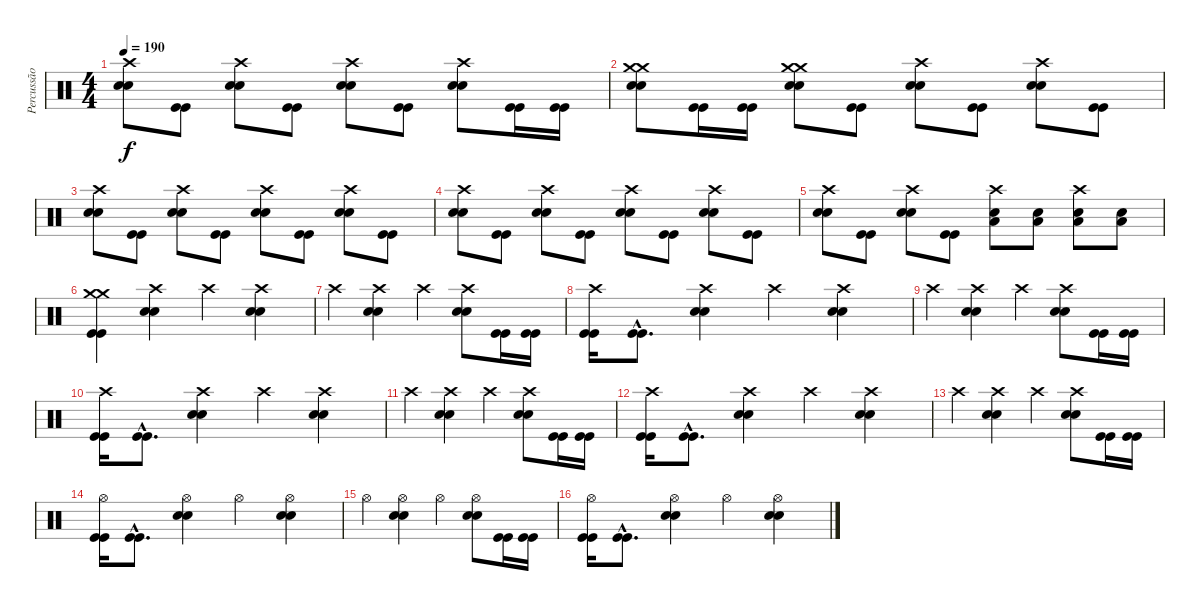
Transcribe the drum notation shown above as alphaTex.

\track ("Percussão" "Percussão") {instrument percussion}
\staff {score}
\articulation defaults
\ts (4 4)
\tempo 190
\clef neutral
\ks c
("Crash high (hit)" "Snare (hit) 2" "Snare (hit) 2").8{dy f} ("Kick (hit)" "Kick (hit)").8 ("Crash high (hit)" "Snare (hit) 2" "Snare (hit) 2").8 ("Kick (hit)" "Kick (hit)").8 ("Crash high (hit)" "Snare (hit) 2" "Snare (hit) 2").8 ("Kick (hit)" "Kick (hit)").8 ("Crash high (hit)" "Snare (hit) 2" "Snare (hit) 2").8 ("Kick (hit)" "Kick (hit)").16 ("Kick (hit)" "Kick (hit)").16 |
("Crash medium (hit)" "Crash medium (hit)" "Snare (hit) 2" "Snare (hit) 2").8 ("Kick (hit)" "Kick (hit)").16 ("Kick (hit)" "Kick (hit)").16 ("Crash medium (hit)" "Crash medium (hit)" "Snare (hit) 2" "Snare (hit) 2").8 ("Kick (hit)" "Kick (hit)").8 ("Crash high (hit)" "Snare (hit) 2" "Snare (hit) 2").8 ("Kick (hit)" "Kick (hit)").8 ("Crash high (hit)" "Snare (hit) 2" "Snare (hit) 2").8 ("Kick (hit)" "Kick (hit)").8 |
("Crash high (hit)" "Snare (hit) 2" "Snare (hit) 2").8 ("Kick (hit)" "Kick (hit)").8 ("Crash high (hit)" "Snare (hit) 2" "Snare (hit) 2").8 ("Kick (hit)" "Kick (hit)").8 ("Crash high (hit)" "Snare (hit) 2" "Snare (hit) 2").8 ("Kick (hit)" "Kick (hit)").8 ("Crash high (hit)" "Snare (hit) 2" "Snare (hit) 2").8 ("Kick (hit)" "Kick (hit)").8 |
("Crash high (hit)" "Snare (hit) 2" "Snare (hit) 2").8 ("Kick (hit)" "Kick (hit)").8 ("Crash high (hit)" "Snare (hit) 2" "Snare (hit) 2").8 ("Kick (hit)" "Kick (hit)").8 ("Crash high (hit)" "Snare (hit) 2" "Snare (hit) 2").8 ("Kick (hit)" "Kick (hit)").8 ("Crash high (hit)" "Snare (hit) 2" "Snare (hit) 2").8 ("Kick (hit)" "Kick (hit)").8 |
("Crash high (hit)" "Snare (hit) 2" "Snare (hit) 2").8 ("Kick (hit)" "Kick (hit)").8 ("Crash high (hit)" "Snare (hit) 2" "Snare (hit) 2").8 ("Kick (hit)" "Kick (hit)").8 ("Crash high (hit)" "Snare (hit) 2" "Low Floor Tom (hit)").8 ("Snare (hit) 2" "Low Floor Tom (hit)").8 ("Crash high (hit)" "Snare (hit) 2" "Low Floor Tom (hit)").8 ("Snare (hit) 2" "Low Floor Tom (hit)").8 |
("Crash medium (hit)" "Crash medium (hit)" "Kick (hit)" "Kick (hit)").4 ("Crash high (hit)" "Snare (hit) 2" "Snare (hit) 2").4 "Crash high (hit)".4 ("Crash high (hit)" "Snare (hit) 2" "Snare (hit) 2").4 |
"Crash high (hit)".4 ("Crash high (hit)" "Snare (hit) 2" "Snare (hit) 2").4 "Crash high (hit)".4 ("Crash high (hit)" "Snare (hit) 2" "Snare (hit) 2").8 ("Kick (hit)" "Kick (hit)").16 ("Kick (hit)" "Kick (hit)").16 |
("Crash high (hit)" "Kick (hit)" "Kick (hit)").16 ("Kick (hit)"{hac} "Kick (hit)"{hac}).8{d} ("Crash high (hit)" "Snare (hit) 2" "Snare (hit) 2").4 "Crash high (hit)".4 ("Crash high (hit)" "Snare (hit) 2" "Snare (hit) 2").4 |
"Crash high (hit)".4 ("Crash high (hit)" "Snare (hit) 2" "Snare (hit) 2").4 "Crash high (hit)".4 ("Crash high (hit)" "Snare (hit) 2" "Snare (hit) 2").8 ("Kick (hit)" "Kick (hit)").16 ("Kick (hit)" "Kick (hit)").16 |
("Crash high (hit)" "Kick (hit)" "Kick (hit)").16 ("Kick (hit)"{hac} "Kick (hit)"{hac}).8{d} ("Crash high (hit)" "Snare (hit) 2" "Snare (hit) 2").4 "Crash high (hit)".4 ("Crash high (hit)" "Snare (hit) 2" "Snare (hit) 2").4 |
"Crash high (hit)".4 ("Crash high (hit)" "Snare (hit) 2" "Snare (hit) 2").4 "Crash high (hit)".4 ("Crash high (hit)" "Snare (hit) 2" "Snare (hit) 2").8 ("Kick (hit)" "Kick (hit)").16 ("Kick (hit)" "Kick (hit)").16 |
("Crash high (hit)" "Kick (hit)" "Kick (hit)").16 ("Kick (hit)"{hac} "Kick (hit)"{hac}).8{d} ("Crash high (hit)" "Snare (hit) 2" "Snare (hit) 2").4 "Crash high (hit)".4 ("Crash high (hit)" "Snare (hit) 2" "Snare (hit) 2").4 |
"Crash high (hit)".4 ("Crash high (hit)" "Snare (hit) 2" "Snare (hit) 2").4 "Crash high (hit)".4 ("Crash high (hit)" "Snare (hit) 2" "Snare (hit) 2").8 ("Kick (hit)" "Kick (hit)").16 ("Kick (hit)" "Kick (hit)").16 |
("Hi-Hat (open)" "Kick (hit)" "Kick (hit)").16 ("Kick (hit)"{hac} "Kick (hit)"{hac}).8{d} ("Hi-Hat (open)" "Snare (hit) 2" "Snare (hit) 2").4 "Hi-Hat (open)".4 ("Hi-Hat (open)" "Snare (hit) 2" "Snare (hit) 2").4 |
"Hi-Hat (open)".4 ("Hi-Hat (open)" "Snare (hit) 2" "Snare (hit) 2").4 "Hi-Hat (open)".4 ("Hi-Hat (open)" "Snare (hit) 2" "Snare (hit) 2").8 ("Kick (hit)" "Kick (hit)").16 ("Kick (hit)" "Kick (hit)").16 |
("Hi-Hat (open)" "Kick (hit)" "Kick (hit)").16 ("Kick (hit)"{hac} "Kick (hit)"{hac}).8{d} ("Hi-Hat (open)" "Snare (hit) 2" "Snare (hit) 2").4 "Hi-Hat (open)".4 ("Hi-Hat (open)" "Snare (hit) 2" "Snare (hit) 2").4
